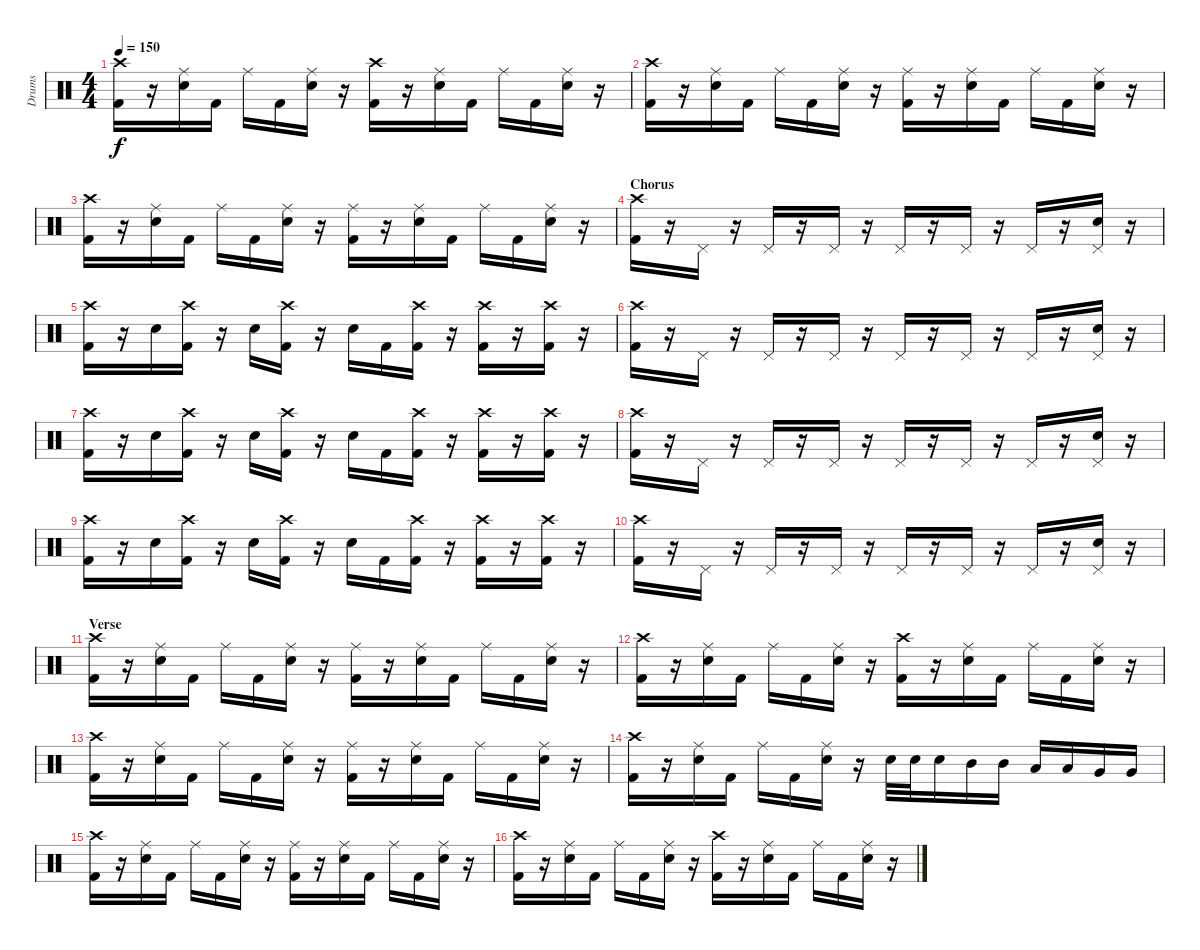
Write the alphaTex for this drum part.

\track ("Drums" "Drums") {instrument percussion}
\staff {score}
\articulation defaults
\ts (4 4)
\tempo 150
\clef neutral
\ks c
("Crash high (hit)" "Kick (hit) 2").16{dy f} r.16 ("Ride (middle)" "Electric Snare (hit)").16 "Kick (hit) 2".16 "Ride (middle)".16 "Kick (hit) 2".16 ("Ride (middle)" "Electric Snare (hit)").16 r.16 ("Crash high (hit)" "Kick (hit) 2").16 r.16 ("Ride (middle)" "Electric Snare (hit)").16 "Kick (hit) 2".16 "Ride (middle)".16 "Kick (hit) 2".16 ("Ride (middle)" "Electric Snare (hit)").16 r.16 |
("Crash high (hit)" "Kick (hit) 2").16 r.16 ("Ride (middle)" "Electric Snare (hit)").16 "Kick (hit) 2".16 "Ride (middle)".16 "Kick (hit) 2".16 ("Ride (middle)" "Electric Snare (hit)").16 r.16 ("Ride (middle)" "Kick (hit) 2").16 r.16 ("Ride (middle)" "Electric Snare (hit)").16 "Kick (hit) 2".16 "Ride (middle)".16 "Kick (hit) 2".16 ("Ride (middle)" "Electric Snare (hit)").16 r.16 |
("Crash high (hit)" "Kick (hit) 2").16 r.16 ("Ride (middle)" "Electric Snare (hit)").16 "Kick (hit) 2".16 "Ride (middle)".16 "Kick (hit) 2".16 ("Ride (middle)" "Electric Snare (hit)").16 r.16 ("Ride (middle)" "Kick (hit) 2").16 r.16 ("Ride (middle)" "Electric Snare (hit)").16 "Kick (hit) 2".16 "Ride (middle)".16 "Kick (hit) 2".16 ("Ride (middle)" "Electric Snare (hit)").16 r.16 |
\section ("" "Chorus")
("Crash high (hit)" "Kick (hit) 2").16 r.16 "Pedal Hi-Hat (hit)".16 r.16 "Pedal Hi-Hat (hit)".16 r.16 "Pedal Hi-Hat (hit)".16 r.16 "Pedal Hi-Hat (hit)".16 r.16 "Pedal Hi-Hat (hit)".16 r.16 "Pedal Hi-Hat (hit)".16 r.16 ("Pedal Hi-Hat (hit)" "Electric Snare (hit)").16 r.16 |
("Crash high (hit)" "Kick (hit) 2").16 r.16 "Electric Snare (hit)".16 ("Crash high (hit)" "Kick (hit) 2").16 r.16 "Electric Snare (hit)".16 ("Crash high (hit)" "Kick (hit) 2").16 r.16 "Electric Snare (hit)".16 "Kick (hit) 2".16 ("Crash high (hit)" "Kick (hit) 2").16 r.16 ("Crash high (hit)" "Kick (hit) 2").16 r.16 ("Crash high (hit)" "Kick (hit) 2").16 r.16 |
("Crash high (hit)" "Kick (hit) 2").16 r.16 "Pedal Hi-Hat (hit)".16 r.16 "Pedal Hi-Hat (hit)".16 r.16 "Pedal Hi-Hat (hit)".16 r.16 "Pedal Hi-Hat (hit)".16 r.16 "Pedal Hi-Hat (hit)".16 r.16 "Pedal Hi-Hat (hit)".16 r.16 ("Pedal Hi-Hat (hit)" "Electric Snare (hit)").16 r.16 |
("Crash high (hit)" "Kick (hit) 2").16 r.16 "Electric Snare (hit)".16 ("Crash high (hit)" "Kick (hit) 2").16 r.16 "Electric Snare (hit)".16 ("Crash high (hit)" "Kick (hit) 2").16 r.16 "Electric Snare (hit)".16 "Kick (hit) 2".16 ("Crash high (hit)" "Kick (hit) 2").16 r.16 ("Crash high (hit)" "Kick (hit) 2").16 r.16 ("Crash high (hit)" "Kick (hit) 2").16 r.16 |
("Crash high (hit)" "Kick (hit) 2").16 r.16 "Pedal Hi-Hat (hit)".16 r.16 "Pedal Hi-Hat (hit)".16 r.16 "Pedal Hi-Hat (hit)".16 r.16 "Pedal Hi-Hat (hit)".16 r.16 "Pedal Hi-Hat (hit)".16 r.16 "Pedal Hi-Hat (hit)".16 r.16 ("Pedal Hi-Hat (hit)" "Electric Snare (hit)").16 r.16 |
("Crash high (hit)" "Kick (hit) 2").16 r.16 "Electric Snare (hit)".16 ("Crash high (hit)" "Kick (hit) 2").16 r.16 "Electric Snare (hit)".16 ("Crash high (hit)" "Kick (hit) 2").16 r.16 "Electric Snare (hit)".16 "Kick (hit) 2".16 ("Crash high (hit)" "Kick (hit) 2").16 r.16 ("Crash high (hit)" "Kick (hit) 2").16 r.16 ("Crash high (hit)" "Kick (hit) 2").16 r.16 |
("Crash high (hit)" "Kick (hit) 2").16 r.16 "Pedal Hi-Hat (hit)".16 r.16 "Pedal Hi-Hat (hit)".16 r.16 "Pedal Hi-Hat (hit)".16 r.16 "Pedal Hi-Hat (hit)".16 r.16 "Pedal Hi-Hat (hit)".16 r.16 "Pedal Hi-Hat (hit)".16 r.16 ("Pedal Hi-Hat (hit)" "Electric Snare (hit)").16 r.16 |
\section ("" "Verse")
("Crash high (hit)" "Kick (hit) 2").16 r.16 ("Ride (middle)" "Electric Snare (hit)").16 "Kick (hit) 2".16 "Ride (middle)".16 "Kick (hit) 2".16 ("Ride (middle)" "Electric Snare (hit)").16 r.16 ("Ride (middle)" "Kick (hit) 2").16 r.16 ("Ride (middle)" "Electric Snare (hit)").16 "Kick (hit) 2".16 "Ride (middle)".16 "Kick (hit) 2".16 ("Ride (middle)" "Electric Snare (hit)").16 r.16 |
("Crash high (hit)" "Kick (hit) 2").16 r.16 ("Ride (middle)" "Electric Snare (hit)").16 "Kick (hit) 2".16 "Ride (middle)".16 "Kick (hit) 2".16 ("Ride (middle)" "Electric Snare (hit)").16 r.16 ("Crash high (hit)" "Kick (hit) 2").16 r.16 ("Ride (middle)" "Electric Snare (hit)").16 "Kick (hit) 2".16 "Ride (middle)".16 "Kick (hit) 2".16 ("Ride (middle)" "Electric Snare (hit)").16 r.16 |
("Crash high (hit)" "Kick (hit) 2").16 r.16 ("Ride (middle)" "Electric Snare (hit)").16 "Kick (hit) 2".16 "Ride (middle)".16 "Kick (hit) 2".16 ("Ride (middle)" "Electric Snare (hit)").16 r.16 ("Ride (middle)" "Kick (hit) 2").16 r.16 ("Ride (middle)" "Electric Snare (hit)").16 "Kick (hit) 2".16 "Ride (middle)".16 "Kick (hit) 2".16 ("Ride (middle)" "Electric Snare (hit)").16 r.16 |
("Crash high (hit)" "Kick (hit) 2").16 r.16 ("Ride (middle)" "Electric Snare (hit)").16 "Kick (hit) 2".16 "Ride (middle)".16 "Kick (hit) 2".16 ("Ride (middle)" "Electric Snare (hit)").16 r.16 "Electric Snare (hit)".32 "Electric Snare (hit)".32 "Electric Snare (hit)".16 "Mid Tom (hit)".16 "Mid Tom (hit)".16 "Low Tom (hit)".16 "Low Tom (hit)".16 "Very Low Tom (hit)".16 "Very Low Tom (hit)".16 |
("Crash high (hit)" "Kick (hit) 2").16 r.16 ("Ride (middle)" "Electric Snare (hit)").16 "Kick (hit) 2".16 "Ride (middle)".16 "Kick (hit) 2".16 ("Ride (middle)" "Electric Snare (hit)").16 r.16 ("Ride (middle)" "Kick (hit) 2").16 r.16 ("Ride (middle)" "Electric Snare (hit)").16 "Kick (hit) 2".16 "Ride (middle)".16 "Kick (hit) 2".16 ("Ride (middle)" "Electric Snare (hit)").16 r.16 |
("Crash high (hit)" "Kick (hit) 2").16 r.16 ("Ride (middle)" "Electric Snare (hit)").16 "Kick (hit) 2".16 "Ride (middle)".16 "Kick (hit) 2".16 ("Ride (middle)" "Electric Snare (hit)").16 r.16 ("Crash high (hit)" "Kick (hit) 2").16 r.16 ("Ride (middle)" "Electric Snare (hit)").16 "Kick (hit) 2".16 "Ride (middle)".16 "Kick (hit) 2".16 ("Ride (middle)" "Electric Snare (hit)").16 r.16
